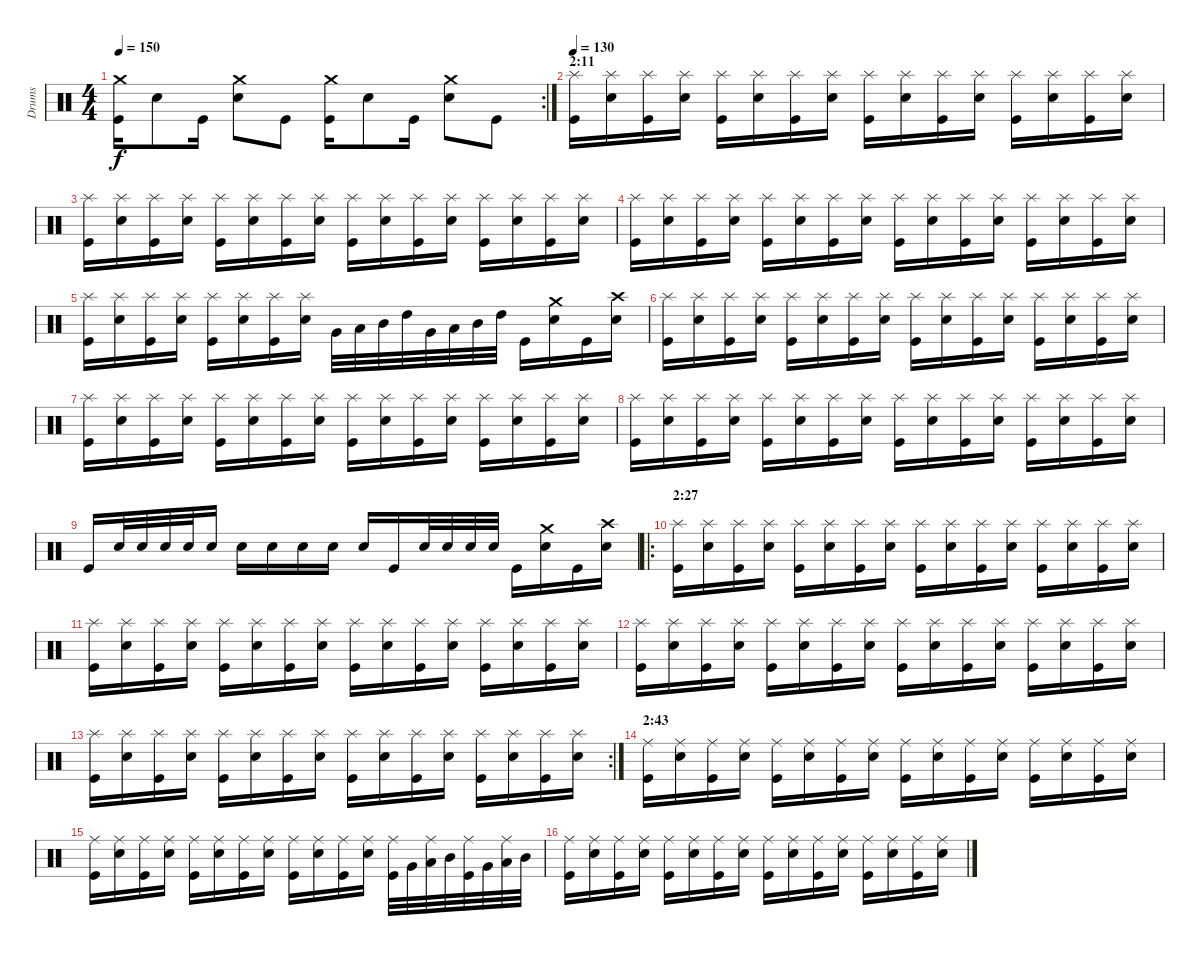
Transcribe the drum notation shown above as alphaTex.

\track ("Drums" "Drums") {instrument percussion}
\staff {score}
\articulation defaults
\rc 2
\ts (4 4)
\tempo 150
\clef neutral
\ks c
("Kick (hit)" "Crash medium (hit)").16{dy f} "Electric Snare (hit)".8 "Kick (hit)".16 ("Electric Snare (hit)" "Crash medium (hit)").8 "Kick (hit)".8 ("Kick (hit)" "Crash medium (hit)").16 "Electric Snare (hit)".8 "Kick (hit)".16 ("Electric Snare (hit)" "Crash medium (hit)").8 "Kick (hit)".8 |
\section ("" "2:11")
\tempo 130
("Kick (hit)" "Splash (hit)").16 ("Electric Snare (hit)" "Splash (hit)").16 ("Kick (hit)" "Splash (hit)").16 ("Electric Snare (hit)" "Splash (hit)").16 ("Kick (hit)" "Splash (hit)").16 ("Electric Snare (hit)" "Splash (hit)").16 ("Kick (hit)" "Splash (hit)").16 ("Electric Snare (hit)" "Splash (hit)").16 ("Kick (hit)" "Splash (hit)").16 ("Electric Snare (hit)" "Splash (hit)").16 ("Kick (hit)" "Splash (hit)").16 ("Electric Snare (hit)" "Splash (hit)").16 ("Kick (hit)" "Splash (hit)").16 ("Electric Snare (hit)" "Splash (hit)").16 ("Kick (hit)" "Splash (hit)").16 ("Electric Snare (hit)" "Splash (hit)").16 |
("Kick (hit)" "Splash (hit)").16 ("Electric Snare (hit)" "Splash (hit)").16 ("Kick (hit)" "Splash (hit)").16 ("Electric Snare (hit)" "Splash (hit)").16 ("Kick (hit)" "Splash (hit)").16 ("Electric Snare (hit)" "Splash (hit)").16 ("Kick (hit)" "Splash (hit)").16 ("Electric Snare (hit)" "Splash (hit)").16 ("Kick (hit)" "Splash (hit)").16 ("Electric Snare (hit)" "Splash (hit)").16 ("Kick (hit)" "Splash (hit)").16 ("Electric Snare (hit)" "Splash (hit)").16 ("Kick (hit)" "Splash (hit)").16 ("Electric Snare (hit)" "Splash (hit)").16 ("Kick (hit)" "Splash (hit)").16 ("Electric Snare (hit)" "Splash (hit)").16 |
("Kick (hit)" "Splash (hit)").16 ("Electric Snare (hit)" "Splash (hit)").16 ("Kick (hit)" "Splash (hit)").16 ("Electric Snare (hit)" "Splash (hit)").16 ("Kick (hit)" "Splash (hit)").16 ("Electric Snare (hit)" "Splash (hit)").16 ("Kick (hit)" "Splash (hit)").16 ("Electric Snare (hit)" "Splash (hit)").16 ("Kick (hit)" "Splash (hit)").16 ("Electric Snare (hit)" "Splash (hit)").16 ("Kick (hit)" "Splash (hit)").16 ("Electric Snare (hit)" "Splash (hit)").16 ("Kick (hit)" "Splash (hit)").16 ("Electric Snare (hit)" "Splash (hit)").16 ("Kick (hit)" "Splash (hit)").16 ("Electric Snare (hit)" "Splash (hit)").16 |
("Kick (hit)" "Splash (hit)").16 ("Electric Snare (hit)" "Splash (hit)").16 ("Kick (hit)" "Splash (hit)").16 ("Electric Snare (hit)" "Splash (hit)").16 ("Kick (hit)" "Splash (hit)").16 ("Electric Snare (hit)" "Splash (hit)").16 ("Kick (hit)" "Splash (hit)").16 ("Electric Snare (hit)" "Splash (hit)").16 "Very Low Tom (hit)".32 "Low Tom (hit)".32 "Mid Tom (hit)".32 "High Tom (hit)".32 "Very Low Tom (hit)".32 "Low Tom (hit)".32 "Mid Tom (hit)".32 "High Tom (hit)".32 "Kick (hit)".16 ("Electric Snare (hit)" "Crash medium (hit)").16 "Kick (hit)".16 ("Electric Snare (hit)" "Crash high (hit)").16 |
("Kick (hit)" "Splash (hit)").16 ("Electric Snare (hit)" "Splash (hit)").16 ("Kick (hit)" "Splash (hit)").16 ("Electric Snare (hit)" "Splash (hit)").16 ("Kick (hit)" "Splash (hit)").16 ("Electric Snare (hit)" "Splash (hit)").16 ("Kick (hit)" "Splash (hit)").16 ("Electric Snare (hit)" "Splash (hit)").16 ("Kick (hit)" "Splash (hit)").16 ("Electric Snare (hit)" "Splash (hit)").16 ("Kick (hit)" "Splash (hit)").16 ("Electric Snare (hit)" "Splash (hit)").16 ("Kick (hit)" "Splash (hit)").16 ("Electric Snare (hit)" "Splash (hit)").16 ("Kick (hit)" "Splash (hit)").16 ("Electric Snare (hit)" "Splash (hit)").16 |
("Kick (hit)" "Splash (hit)").16 ("Electric Snare (hit)" "Splash (hit)").16 ("Kick (hit)" "Splash (hit)").16 ("Electric Snare (hit)" "Splash (hit)").16 ("Kick (hit)" "Splash (hit)").16 ("Electric Snare (hit)" "Splash (hit)").16 ("Kick (hit)" "Splash (hit)").16 ("Electric Snare (hit)" "Splash (hit)").16 ("Kick (hit)" "Splash (hit)").16 ("Electric Snare (hit)" "Splash (hit)").16 ("Kick (hit)" "Splash (hit)").16 ("Electric Snare (hit)" "Splash (hit)").16 ("Kick (hit)" "Splash (hit)").16 ("Electric Snare (hit)" "Splash (hit)").16 ("Kick (hit)" "Splash (hit)").16 ("Electric Snare (hit)" "Splash (hit)").16 |
("Kick (hit)" "Splash (hit)").16 ("Electric Snare (hit)" "Splash (hit)").16 ("Kick (hit)" "Splash (hit)").16 ("Electric Snare (hit)" "Splash (hit)").16 ("Kick (hit)" "Splash (hit)").16 ("Electric Snare (hit)" "Splash (hit)").16 ("Kick (hit)" "Splash (hit)").16 ("Electric Snare (hit)" "Splash (hit)").16 ("Kick (hit)" "Splash (hit)").16 ("Electric Snare (hit)" "Splash (hit)").16 ("Kick (hit)" "Splash (hit)").16 ("Electric Snare (hit)" "Splash (hit)").16 ("Kick (hit)" "Splash (hit)").16 ("Electric Snare (hit)" "Splash (hit)").16 ("Kick (hit)" "Splash (hit)").16 ("Electric Snare (hit)" "Splash (hit)").16 |
"Kick (hit)".16 "Electric Snare (hit)".32 "Electric Snare (hit)".32 "Electric Snare (hit)".32 "Electric Snare (hit)".32 "Electric Snare (hit)".16 "Electric Snare (hit)".16 "Electric Snare (hit)".16 "Electric Snare (hit)".16 "Electric Snare (hit)".16 "Electric Snare (hit)".16 "Kick (hit)".16 "Electric Snare (hit)".32 "Electric Snare (hit)".32 "Electric Snare (hit)".32 "Electric Snare (hit)".32 "Kick (hit)".16 ("Electric Snare (hit)" "Crash medium (hit)").16 "Kick (hit)".16 ("Electric Snare (hit)" "Crash high (hit)").16 |
\ro
\section ("" "2:27")
("Kick (hit)" "Splash (hit)").16 ("Electric Snare (hit)" "Splash (hit)").16 ("Kick (hit)" "Splash (hit)").16 ("Electric Snare (hit)" "Splash (hit)").16 ("Kick (hit)" "Splash (hit)").16 ("Electric Snare (hit)" "Splash (hit)").16 ("Kick (hit)" "Splash (hit)").16 ("Electric Snare (hit)" "Splash (hit)").16 ("Kick (hit)" "Splash (hit)").16 ("Electric Snare (hit)" "Splash (hit)").16 ("Kick (hit)" "Splash (hit)").16 ("Electric Snare (hit)" "Splash (hit)").16 ("Kick (hit)" "Splash (hit)").16 ("Electric Snare (hit)" "Splash (hit)").16 ("Kick (hit)" "Splash (hit)").16 ("Electric Snare (hit)" "Splash (hit)").16 |
("Kick (hit)" "Splash (hit)").16 ("Electric Snare (hit)" "Splash (hit)").16 ("Kick (hit)" "Splash (hit)").16 ("Electric Snare (hit)" "Splash (hit)").16 ("Kick (hit)" "Splash (hit)").16 ("Electric Snare (hit)" "Splash (hit)").16 ("Kick (hit)" "Splash (hit)").16 ("Electric Snare (hit)" "Splash (hit)").16 ("Kick (hit)" "Splash (hit)").16 ("Electric Snare (hit)" "Splash (hit)").16 ("Kick (hit)" "Splash (hit)").16 ("Electric Snare (hit)" "Splash (hit)").16 ("Kick (hit)" "Splash (hit)").16 ("Electric Snare (hit)" "Splash (hit)").16 ("Kick (hit)" "Splash (hit)").16 ("Electric Snare (hit)" "Splash (hit)").16 |
("Kick (hit)" "Splash (hit)").16 ("Electric Snare (hit)" "Splash (hit)").16 ("Kick (hit)" "Splash (hit)").16 ("Electric Snare (hit)" "Splash (hit)").16 ("Kick (hit)" "Splash (hit)").16 ("Electric Snare (hit)" "Splash (hit)").16 ("Kick (hit)" "Splash (hit)").16 ("Electric Snare (hit)" "Splash (hit)").16 ("Kick (hit)" "Splash (hit)").16 ("Electric Snare (hit)" "Splash (hit)").16 ("Kick (hit)" "Splash (hit)").16 ("Electric Snare (hit)" "Splash (hit)").16 ("Kick (hit)" "Splash (hit)").16 ("Electric Snare (hit)" "Splash (hit)").16 ("Kick (hit)" "Splash (hit)").16 ("Electric Snare (hit)" "Splash (hit)").16 |
\rc 2
("Kick (hit)" "Splash (hit)").16 ("Electric Snare (hit)" "Splash (hit)").16 ("Kick (hit)" "Splash (hit)").16 ("Electric Snare (hit)" "Splash (hit)").16 ("Kick (hit)" "Splash (hit)").16 ("Electric Snare (hit)" "Splash (hit)").16 ("Kick (hit)" "Splash (hit)").16 ("Electric Snare (hit)" "Splash (hit)").16 ("Kick (hit)" "Splash (hit)").16 ("Electric Snare (hit)" "Splash (hit)").16 ("Kick (hit)" "Splash (hit)").16 ("Electric Snare (hit)" "Splash (hit)").16 ("Kick (hit)" "Splash (hit)").16 ("Electric Snare (hit)" "Splash (hit)").16 ("Kick (hit)" "Splash (hit)").16 ("Electric Snare (hit)" "Splash (hit)").16 |
\section ("" "2:43")
("Kick (hit)" "Ride (middle)").16 ("Electric Snare (hit)" "Ride (middle)").16 ("Kick (hit)" "Ride (middle)").16 ("Electric Snare (hit)" "Ride (middle)").16 ("Kick (hit)" "Ride (middle)").16 ("Electric Snare (hit)" "Ride (middle)").16 ("Kick (hit)" "Ride (middle)").16 ("Electric Snare (hit)" "Ride (middle)").16 ("Kick (hit)" "Ride (middle)").16 ("Electric Snare (hit)" "Ride (middle)").16 ("Kick (hit)" "Ride (middle)").16 ("Electric Snare (hit)" "Ride (middle)").16 ("Kick (hit)" "Ride (middle)").16 ("Electric Snare (hit)" "Ride (middle)").16 ("Kick (hit)" "Ride (middle)").16 ("Electric Snare (hit)" "Ride (middle)").16 |
("Kick (hit)" "Ride (middle)").16 ("Electric Snare (hit)" "Ride (middle)").16 ("Kick (hit)" "Ride (middle)").16 ("Electric Snare (hit)" "Ride (middle)").16 ("Kick (hit)" "Ride (middle)").16 ("Electric Snare (hit)" "Ride (middle)").16 ("Kick (hit)" "Ride (middle)").16 ("Electric Snare (hit)" "Ride (middle)").16 ("Kick (hit)" "Ride (middle)").16 ("Electric Snare (hit)" "Ride (middle)").16 ("Kick (hit)" "Ride (middle)").16 ("Electric Snare (hit)" "Ride (middle)").16 ("Kick (hit)" "Ride (middle)").32 "Very Low Tom (hit)".32 ("Low Tom (hit)" "Ride (middle)").32 "Mid Tom (hit)".32 ("Kick (hit)" "Ride (middle)").32 "Very Low Tom (hit)".32 ("Low Tom (hit)" "Ride (middle)").32 "Mid Tom (hit)".32 |
("Kick (hit)" "Ride (middle)").16 ("Electric Snare (hit)" "Ride (middle)").16 ("Kick (hit)" "Ride (middle)").16 ("Electric Snare (hit)" "Ride (middle)").16 ("Kick (hit)" "Ride (middle)").16 ("Electric Snare (hit)" "Ride (middle)").16 ("Kick (hit)" "Ride (middle)").16 ("Electric Snare (hit)" "Ride (middle)").16 ("Kick (hit)" "Ride (middle)").16 ("Electric Snare (hit)" "Ride (middle)").16 ("Kick (hit)" "Ride (middle)").16 ("Electric Snare (hit)" "Ride (middle)").16 ("Kick (hit)" "Ride (middle)").16 ("Electric Snare (hit)" "Ride (middle)").16 ("Kick (hit)" "Ride (middle)").16 ("Electric Snare (hit)" "Ride (middle)").16
